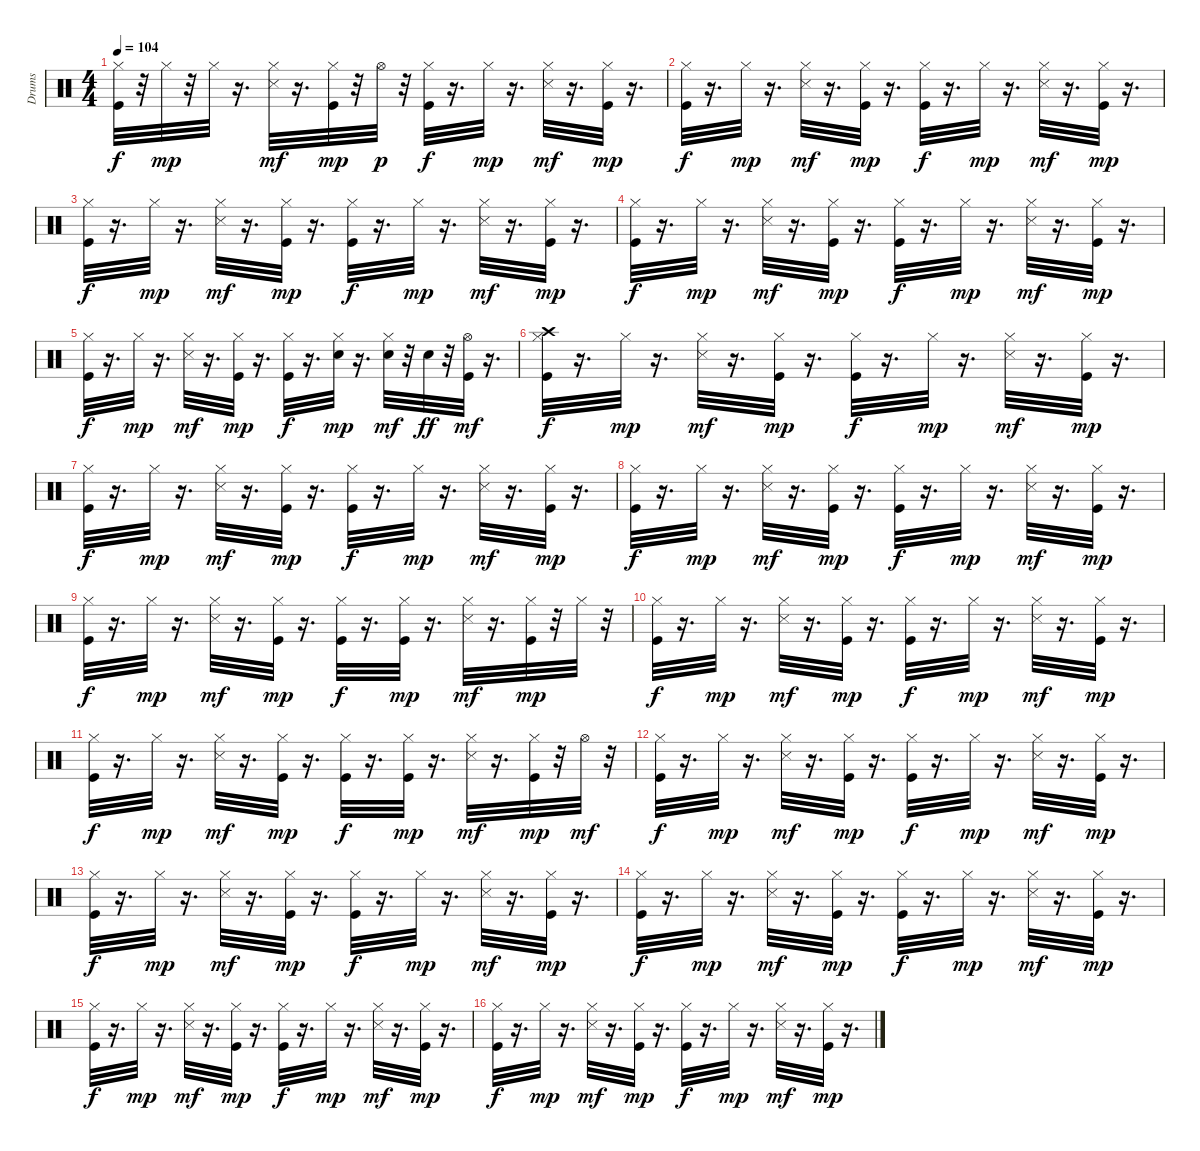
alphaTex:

\track ("Drums" "Drums") {instrument percussion}
\staff {score}
\articulation defaults
\ts (4 4)
\tempo 104
\clef neutral
\ks c
("Kick (hit)" "Hi-Hat (closed)").32{dy f} r.32 "Hi-Hat (closed)".32{dy mp} r.32 "Hi-Hat (closed)".32 r.16{d} ("Hi-Hat (closed)" "Snare (side stick) 3").32{dy mf} r.16{d} ("Kick (hit)" "Hi-Hat (closed)").32{dy mp} r.32 "Hi-Hat (open)".32{dy p} r.32 ("Kick (hit)" "Hi-Hat (closed)").32{dy f} r.16{d} "Hi-Hat (closed)".32{dy mp} r.16{d} ("Hi-Hat (closed)" "Snare (side stick) 3").32{dy mf} r.16{d} ("Kick (hit)" "Hi-Hat (closed)").32{dy mp} r.16{d} |
("Kick (hit)" "Hi-Hat (closed)").32{dy f} r.16{d} "Hi-Hat (closed)".32{dy mp} r.16{d} ("Hi-Hat (closed)" "Snare (side stick) 3").32{dy mf} r.16{d} ("Kick (hit)" "Hi-Hat (closed)").32{dy mp} r.16{d} ("Kick (hit)" "Hi-Hat (closed)").32{dy f} r.16{d} "Hi-Hat (closed)".32{dy mp} r.16{d} ("Hi-Hat (closed)" "Snare (side stick) 3").32{dy mf} r.16{d} ("Kick (hit)" "Hi-Hat (closed)").32{dy mp} r.16{d} |
("Kick (hit)" "Hi-Hat (closed)").32{dy f} r.16{d} "Hi-Hat (closed)".32{dy mp} r.16{d} ("Hi-Hat (closed)" "Snare (side stick) 3").32{dy mf} r.16{d} ("Kick (hit)" "Hi-Hat (closed)").32{dy mp} r.16{d} ("Kick (hit)" "Hi-Hat (closed)").32{dy f} r.16{d} "Hi-Hat (closed)".32{dy mp} r.16{d} ("Hi-Hat (closed)" "Snare (side stick) 3").32{dy mf} r.16{d} ("Kick (hit)" "Hi-Hat (closed)").32{dy mp} r.16{d} |
("Kick (hit)" "Hi-Hat (closed)").32{dy f} r.16{d} "Hi-Hat (closed)".32{dy mp} r.16{d} ("Hi-Hat (closed)" "Snare (side stick) 3").32{dy mf} r.16{d} ("Kick (hit)" "Hi-Hat (closed)").32{dy mp} r.16{d} ("Kick (hit)" "Hi-Hat (closed)").32{dy f} r.16{d} "Hi-Hat (closed)".32{dy mp} r.16{d} ("Hi-Hat (closed)" "Snare (side stick) 3").32{dy mf} r.16{d} ("Kick (hit)" "Hi-Hat (closed)").32{dy mp} r.16{d} |
("Kick (hit)" "Hi-Hat (closed)").32{dy f} r.16{d} "Hi-Hat (closed)".32{dy mp} r.16{d} ("Hi-Hat (closed)" "Snare (side stick) 3").32{dy mf} r.16{d} ("Kick (hit)" "Hi-Hat (closed)").32{dy mp} r.16{d} ("Kick (hit)" "Hi-Hat (closed)").32{dy f} r.16{d} ("Snare (hit) 2" "Hi-Hat (closed)").32{dy mp} r.16{d} ("Snare (hit) 2" "Hi-Hat (closed)").32{dy mf} r.32 "Snare (hit) 2".32{dy ff} r.32 ("Kick (hit)" "Hi-Hat (open)").32{dy mf} r.16{d} |
("Kick (hit)" "Hi-Hat (closed)" "Crash high (hit)").32{dy f} r.16{d} "Hi-Hat (closed)".32{dy mp} r.16{d} ("Hi-Hat (closed)" "Snare (side stick) 3").32{dy mf} r.16{d} ("Kick (hit)" "Hi-Hat (closed)").32{dy mp} r.16{d} ("Kick (hit)" "Hi-Hat (closed)").32{dy f} r.16{d} "Hi-Hat (closed)".32{dy mp} r.16{d} ("Hi-Hat (closed)" "Snare (side stick) 3").32{dy mf} r.16{d} ("Kick (hit)" "Hi-Hat (closed)").32{dy mp} r.16{d} |
("Kick (hit)" "Hi-Hat (closed)").32{dy f} r.16{d} "Hi-Hat (closed)".32{dy mp} r.16{d} ("Hi-Hat (closed)" "Snare (side stick) 3").32{dy mf} r.16{d} ("Kick (hit)" "Hi-Hat (closed)").32{dy mp} r.16{d} ("Kick (hit)" "Hi-Hat (closed)").32{dy f} r.16{d} "Hi-Hat (closed)".32{dy mp} r.16{d} ("Hi-Hat (closed)" "Snare (side stick) 3").32{dy mf} r.16{d} ("Kick (hit)" "Hi-Hat (closed)").32{dy mp} r.16{d} |
("Kick (hit)" "Hi-Hat (closed)").32{dy f} r.16{d} "Hi-Hat (closed)".32{dy mp} r.16{d} ("Hi-Hat (closed)" "Snare (side stick) 3").32{dy mf} r.16{d} ("Kick (hit)" "Hi-Hat (closed)").32{dy mp} r.16{d} ("Kick (hit)" "Hi-Hat (closed)").32{dy f} r.16{d} "Hi-Hat (closed)".32{dy mp} r.16{d} ("Hi-Hat (closed)" "Snare (side stick) 3").32{dy mf} r.16{d} ("Kick (hit)" "Hi-Hat (closed)").32{dy mp} r.16{d} |
("Kick (hit)" "Hi-Hat (closed)").32{dy f} r.16{d} "Hi-Hat (closed)".32{dy mp} r.16{d} ("Hi-Hat (closed)" "Snare (side stick) 3").32{dy mf} r.16{d} ("Kick (hit)" "Hi-Hat (closed)").32{dy mp} r.16{d} ("Kick (hit)" "Hi-Hat (closed)").32{dy f} r.16{d} ("Kick (hit)" "Hi-Hat (closed)").32{dy mp} r.16{d} ("Hi-Hat (closed)" "Snare (side stick) 3").32{dy mf} r.16{d} ("Kick (hit)" "Hi-Hat (closed)").32{dy mp} r.32 "Hi-Hat (closed)".32 r.32 |
("Kick (hit)" "Hi-Hat (closed)").32{dy f} r.16{d} "Hi-Hat (closed)".32{dy mp} r.16{d} ("Hi-Hat (closed)" "Snare (side stick) 3").32{dy mf} r.16{d} ("Kick (hit)" "Hi-Hat (closed)").32{dy mp} r.16{d} ("Kick (hit)" "Hi-Hat (closed)").32{dy f} r.16{d} "Hi-Hat (closed)".32{dy mp} r.16{d} ("Hi-Hat (closed)" "Snare (side stick) 3").32{dy mf} r.16{d} ("Kick (hit)" "Hi-Hat (closed)").32{dy mp} r.16{d} |
("Kick (hit)" "Hi-Hat (closed)").32{dy f} r.16{d} "Hi-Hat (closed)".32{dy mp} r.16{d} ("Hi-Hat (closed)" "Snare (side stick) 3").32{dy mf} r.16{d} ("Kick (hit)" "Hi-Hat (closed)").32{dy mp} r.16{d} ("Kick (hit)" "Hi-Hat (closed)").32{dy f} r.16{d} ("Kick (hit)" "Hi-Hat (closed)").32{dy mp} r.16{d} ("Hi-Hat (closed)" "Snare (side stick) 3").32{dy mf} r.16{d} ("Kick (hit)" "Hi-Hat (closed)").32{dy mp} r.32 "Hi-Hat (open)".32{dy mf} r.32 |
("Kick (hit)" "Hi-Hat (closed)").32{dy f} r.16{d} "Hi-Hat (closed)".32{dy mp} r.16{d} ("Hi-Hat (closed)" "Snare (side stick) 3").32{dy mf} r.16{d} ("Kick (hit)" "Hi-Hat (closed)").32{dy mp} r.16{d} ("Kick (hit)" "Hi-Hat (closed)").32{dy f} r.16{d} "Hi-Hat (closed)".32{dy mp} r.16{d} ("Hi-Hat (closed)" "Snare (side stick) 3").32{dy mf} r.16{d} ("Kick (hit)" "Hi-Hat (closed)").32{dy mp} r.16{d} |
("Kick (hit)" "Hi-Hat (closed)").32{dy f} r.16{d} "Hi-Hat (closed)".32{dy mp} r.16{d} ("Hi-Hat (closed)" "Snare (side stick) 3").32{dy mf} r.16{d} ("Kick (hit)" "Hi-Hat (closed)").32{dy mp} r.16{d} ("Kick (hit)" "Hi-Hat (closed)").32{dy f} r.16{d} "Hi-Hat (closed)".32{dy mp} r.16{d} ("Hi-Hat (closed)" "Snare (side stick) 3").32{dy mf} r.16{d} ("Kick (hit)" "Hi-Hat (closed)").32{dy mp} r.16{d} |
("Kick (hit)" "Hi-Hat (closed)").32{dy f} r.16{d} "Hi-Hat (closed)".32{dy mp} r.16{d} ("Hi-Hat (closed)" "Snare (side stick) 3").32{dy mf} r.16{d} ("Kick (hit)" "Hi-Hat (closed)").32{dy mp} r.16{d} ("Kick (hit)" "Hi-Hat (closed)").32{dy f} r.16{d} "Hi-Hat (closed)".32{dy mp} r.16{d} ("Hi-Hat (closed)" "Snare (side stick) 3").32{dy mf} r.16{d} ("Kick (hit)" "Hi-Hat (closed)").32{dy mp} r.16{d} |
("Kick (hit)" "Hi-Hat (closed)").32{dy f} r.16{d} "Hi-Hat (closed)".32{dy mp} r.16{d} ("Hi-Hat (closed)" "Snare (side stick) 3").32{dy mf} r.16{d} ("Kick (hit)" "Hi-Hat (closed)").32{dy mp} r.16{d} ("Kick (hit)" "Hi-Hat (closed)").32{dy f} r.16{d} "Hi-Hat (closed)".32{dy mp} r.16{d} ("Hi-Hat (closed)" "Snare (side stick) 3").32{dy mf} r.16{d} ("Kick (hit)" "Hi-Hat (closed)").32{dy mp} r.16{d} |
("Kick (hit)" "Hi-Hat (closed)").32{dy f} r.16{d} "Hi-Hat (closed)".32{dy mp} r.16{d} ("Hi-Hat (closed)" "Snare (side stick) 3").32{dy mf} r.16{d} ("Kick (hit)" "Hi-Hat (closed)").32{dy mp} r.16{d} ("Kick (hit)" "Hi-Hat (closed)").32{dy f} r.16{d} "Hi-Hat (closed)".32{dy mp} r.16{d} ("Hi-Hat (closed)" "Snare (side stick) 3").32{dy mf} r.16{d} ("Kick (hit)" "Hi-Hat (closed)").32{dy mp} r.16{d}
